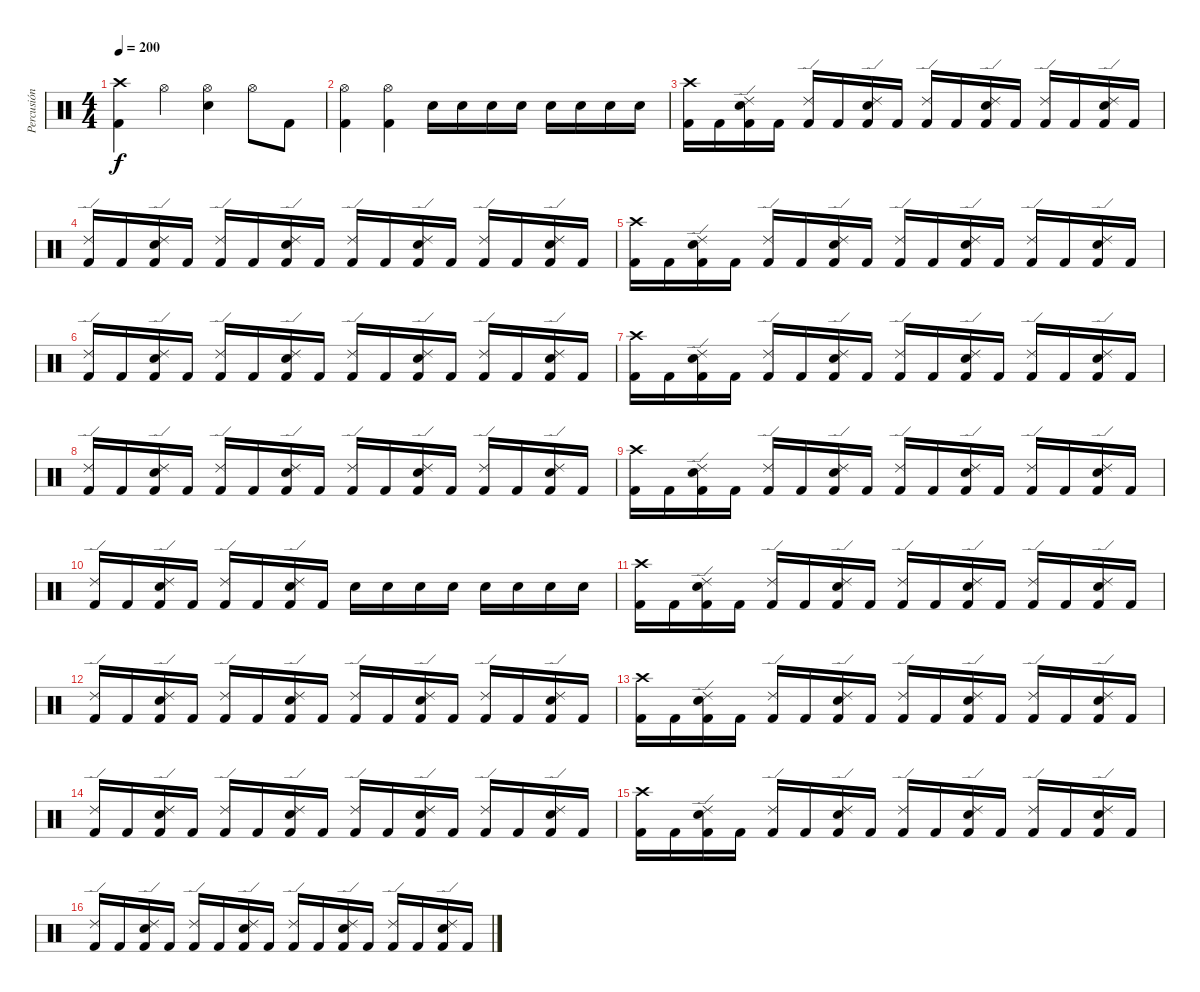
\track ("Percusión" "Percusión") {instrument percussion}
\staff {score}
\articulation defaults
\ts (4 4)
\tempo 200
\clef neutral
\ks c
("Kick (hit) 2" "Crash high (hit)").4{dy f} "Hi-Hat (open)".4 ("Snare (hit) 2" "Hi-Hat (open)").4 "Hi-Hat (open)".8 "Kick (hit) 2".8 |
("Kick (hit) 2" "Hi-Hat (open)").4 ("Kick (hit) 2" "Hi-Hat (open)").4 "Snare (hit) 2".16 "Snare (hit) 2".16 "Snare (hit) 2".16 "Snare (hit) 2".16 "Snare (hit) 2".16 "Snare (hit) 2".16 "Snare (hit) 2".16 "Snare (hit) 2".16 |
("Kick (hit) 2" "Crash high (hit)").16 "Kick (hit) 2".16 ("Kick (hit) 2" "Ride (edge) 2" "Snare (hit) 2").16 "Kick (hit) 2".16 ("Kick (hit) 2" "Ride (edge) 2").16 "Kick (hit) 2".16 ("Kick (hit) 2" "Ride (edge) 2" "Snare (hit) 2").16 "Kick (hit) 2".16 ("Kick (hit) 2" "Ride (edge) 2").16 "Kick (hit) 2".16 ("Kick (hit) 2" "Ride (edge) 2" "Snare (hit) 2").16 "Kick (hit) 2".16 ("Kick (hit) 2" "Ride (edge) 2").16 "Kick (hit) 2".16 ("Kick (hit) 2" "Ride (edge) 2" "Snare (hit) 2").16 "Kick (hit) 2".16 |
("Kick (hit) 2" "Ride (edge) 2").16 "Kick (hit) 2".16 ("Kick (hit) 2" "Ride (edge) 2" "Snare (hit) 2").16 "Kick (hit) 2".16 ("Kick (hit) 2" "Ride (edge) 2").16 "Kick (hit) 2".16 ("Kick (hit) 2" "Ride (edge) 2" "Snare (hit) 2").16 "Kick (hit) 2".16 ("Kick (hit) 2" "Ride (edge) 2").16 "Kick (hit) 2".16 ("Kick (hit) 2" "Ride (edge) 2" "Snare (hit) 2").16 "Kick (hit) 2".16 ("Kick (hit) 2" "Ride (edge) 2").16 "Kick (hit) 2".16 ("Kick (hit) 2" "Ride (edge) 2" "Snare (hit) 2").16 "Kick (hit) 2".16 |
("Kick (hit) 2" "Crash high (hit)").16 "Kick (hit) 2".16 ("Kick (hit) 2" "Ride (edge) 2" "Snare (hit) 2").16 "Kick (hit) 2".16 ("Kick (hit) 2" "Ride (edge) 2").16 "Kick (hit) 2".16 ("Kick (hit) 2" "Ride (edge) 2" "Snare (hit) 2").16 "Kick (hit) 2".16 ("Kick (hit) 2" "Ride (edge) 2").16 "Kick (hit) 2".16 ("Kick (hit) 2" "Ride (edge) 2" "Snare (hit) 2").16 "Kick (hit) 2".16 ("Kick (hit) 2" "Ride (edge) 2").16 "Kick (hit) 2".16 ("Kick (hit) 2" "Ride (edge) 2" "Snare (hit) 2").16 "Kick (hit) 2".16 |
("Kick (hit) 2" "Ride (edge) 2").16 "Kick (hit) 2".16 ("Kick (hit) 2" "Ride (edge) 2" "Snare (hit) 2").16 "Kick (hit) 2".16 ("Kick (hit) 2" "Ride (edge) 2").16 "Kick (hit) 2".16 ("Kick (hit) 2" "Ride (edge) 2" "Snare (hit) 2").16 "Kick (hit) 2".16 ("Kick (hit) 2" "Ride (edge) 2").16 "Kick (hit) 2".16 ("Kick (hit) 2" "Ride (edge) 2" "Snare (hit) 2").16 "Kick (hit) 2".16 ("Kick (hit) 2" "Ride (edge) 2").16 "Kick (hit) 2".16 ("Kick (hit) 2" "Ride (edge) 2" "Snare (hit) 2").16 "Kick (hit) 2".16 |
("Kick (hit) 2" "Crash high (hit)").16 "Kick (hit) 2".16 ("Kick (hit) 2" "Ride (edge) 2" "Snare (hit) 2").16 "Kick (hit) 2".16 ("Kick (hit) 2" "Ride (edge) 2").16 "Kick (hit) 2".16 ("Kick (hit) 2" "Ride (edge) 2" "Snare (hit) 2").16 "Kick (hit) 2".16 ("Kick (hit) 2" "Ride (edge) 2").16 "Kick (hit) 2".16 ("Kick (hit) 2" "Ride (edge) 2" "Snare (hit) 2").16 "Kick (hit) 2".16 ("Kick (hit) 2" "Ride (edge) 2").16 "Kick (hit) 2".16 ("Kick (hit) 2" "Ride (edge) 2" "Snare (hit) 2").16 "Kick (hit) 2".16 |
("Kick (hit) 2" "Ride (edge) 2").16 "Kick (hit) 2".16 ("Kick (hit) 2" "Ride (edge) 2" "Snare (hit) 2").16 "Kick (hit) 2".16 ("Kick (hit) 2" "Ride (edge) 2").16 "Kick (hit) 2".16 ("Kick (hit) 2" "Ride (edge) 2" "Snare (hit) 2").16 "Kick (hit) 2".16 ("Kick (hit) 2" "Ride (edge) 2").16 "Kick (hit) 2".16 ("Kick (hit) 2" "Ride (edge) 2" "Snare (hit) 2").16 "Kick (hit) 2".16 ("Kick (hit) 2" "Ride (edge) 2").16 "Kick (hit) 2".16 ("Kick (hit) 2" "Ride (edge) 2" "Snare (hit) 2").16 "Kick (hit) 2".16 |
("Kick (hit) 2" "Crash high (hit)").16 "Kick (hit) 2".16 ("Kick (hit) 2" "Ride (edge) 2" "Snare (hit) 2").16 "Kick (hit) 2".16 ("Kick (hit) 2" "Ride (edge) 2").16 "Kick (hit) 2".16 ("Kick (hit) 2" "Ride (edge) 2" "Snare (hit) 2").16 "Kick (hit) 2".16 ("Kick (hit) 2" "Ride (edge) 2").16 "Kick (hit) 2".16 ("Kick (hit) 2" "Ride (edge) 2" "Snare (hit) 2").16 "Kick (hit) 2".16 ("Kick (hit) 2" "Ride (edge) 2").16 "Kick (hit) 2".16 ("Kick (hit) 2" "Ride (edge) 2" "Snare (hit) 2").16 "Kick (hit) 2".16 |
("Kick (hit) 2" "Ride (edge) 2").16 "Kick (hit) 2".16 ("Kick (hit) 2" "Ride (edge) 2" "Snare (hit) 2").16 "Kick (hit) 2".16 ("Kick (hit) 2" "Ride (edge) 2").16 "Kick (hit) 2".16 ("Kick (hit) 2" "Ride (edge) 2" "Snare (hit) 2").16 "Kick (hit) 2".16 "Snare (hit) 2".16 "Snare (hit) 2".16 "Snare (hit) 2".16 "Snare (hit) 2".16 "Snare (hit) 2".16 "Snare (hit) 2".16 "Snare (hit) 2".16 "Snare (hit) 2".16 |
("Kick (hit) 2" "Crash high (hit)").16 "Kick (hit) 2".16 ("Kick (hit) 2" "Ride (edge) 2" "Snare (hit) 2").16 "Kick (hit) 2".16 ("Kick (hit) 2" "Ride (edge) 2").16 "Kick (hit) 2".16 ("Kick (hit) 2" "Ride (edge) 2" "Snare (hit) 2").16 "Kick (hit) 2".16 ("Kick (hit) 2" "Ride (edge) 2").16 "Kick (hit) 2".16 ("Kick (hit) 2" "Ride (edge) 2" "Snare (hit) 2").16 "Kick (hit) 2".16 ("Kick (hit) 2" "Ride (edge) 2").16 "Kick (hit) 2".16 ("Kick (hit) 2" "Ride (edge) 2" "Snare (hit) 2").16 "Kick (hit) 2".16 |
("Kick (hit) 2" "Ride (edge) 2").16 "Kick (hit) 2".16 ("Kick (hit) 2" "Ride (edge) 2" "Snare (hit) 2").16 "Kick (hit) 2".16 ("Kick (hit) 2" "Ride (edge) 2").16 "Kick (hit) 2".16 ("Kick (hit) 2" "Ride (edge) 2" "Snare (hit) 2").16 "Kick (hit) 2".16 ("Kick (hit) 2" "Ride (edge) 2").16 "Kick (hit) 2".16 ("Kick (hit) 2" "Ride (edge) 2" "Snare (hit) 2").16 "Kick (hit) 2".16 ("Kick (hit) 2" "Ride (edge) 2").16 "Kick (hit) 2".16 ("Kick (hit) 2" "Ride (edge) 2" "Snare (hit) 2").16 "Kick (hit) 2".16 |
("Kick (hit) 2" "Crash high (hit)").16 "Kick (hit) 2".16 ("Kick (hit) 2" "Ride (edge) 2" "Snare (hit) 2").16 "Kick (hit) 2".16 ("Kick (hit) 2" "Ride (edge) 2").16 "Kick (hit) 2".16 ("Kick (hit) 2" "Ride (edge) 2" "Snare (hit) 2").16 "Kick (hit) 2".16 ("Kick (hit) 2" "Ride (edge) 2").16 "Kick (hit) 2".16 ("Kick (hit) 2" "Ride (edge) 2" "Snare (hit) 2").16 "Kick (hit) 2".16 ("Kick (hit) 2" "Ride (edge) 2").16 "Kick (hit) 2".16 ("Kick (hit) 2" "Ride (edge) 2" "Snare (hit) 2").16 "Kick (hit) 2".16 |
("Kick (hit) 2" "Ride (edge) 2").16 "Kick (hit) 2".16 ("Kick (hit) 2" "Ride (edge) 2" "Snare (hit) 2").16 "Kick (hit) 2".16 ("Kick (hit) 2" "Ride (edge) 2").16 "Kick (hit) 2".16 ("Kick (hit) 2" "Ride (edge) 2" "Snare (hit) 2").16 "Kick (hit) 2".16 ("Kick (hit) 2" "Ride (edge) 2").16 "Kick (hit) 2".16 ("Kick (hit) 2" "Ride (edge) 2" "Snare (hit) 2").16 "Kick (hit) 2".16 ("Kick (hit) 2" "Ride (edge) 2").16 "Kick (hit) 2".16 ("Kick (hit) 2" "Ride (edge) 2" "Snare (hit) 2").16 "Kick (hit) 2".16 |
("Kick (hit) 2" "Crash high (hit)").16 "Kick (hit) 2".16 ("Kick (hit) 2" "Ride (edge) 2" "Snare (hit) 2").16 "Kick (hit) 2".16 ("Kick (hit) 2" "Ride (edge) 2").16 "Kick (hit) 2".16 ("Kick (hit) 2" "Ride (edge) 2" "Snare (hit) 2").16 "Kick (hit) 2".16 ("Kick (hit) 2" "Ride (edge) 2").16 "Kick (hit) 2".16 ("Kick (hit) 2" "Ride (edge) 2" "Snare (hit) 2").16 "Kick (hit) 2".16 ("Kick (hit) 2" "Ride (edge) 2").16 "Kick (hit) 2".16 ("Kick (hit) 2" "Ride (edge) 2" "Snare (hit) 2").16 "Kick (hit) 2".16 |
("Kick (hit) 2" "Ride (edge) 2").16 "Kick (hit) 2".16 ("Kick (hit) 2" "Ride (edge) 2" "Snare (hit) 2").16 "Kick (hit) 2".16 ("Kick (hit) 2" "Ride (edge) 2").16 "Kick (hit) 2".16 ("Kick (hit) 2" "Ride (edge) 2" "Snare (hit) 2").16 "Kick (hit) 2".16 ("Kick (hit) 2" "Ride (edge) 2").16 "Kick (hit) 2".16 ("Kick (hit) 2" "Ride (edge) 2" "Snare (hit) 2").16 "Kick (hit) 2".16 ("Kick (hit) 2" "Ride (edge) 2").16 "Kick (hit) 2".16 ("Kick (hit) 2" "Ride (edge) 2" "Snare (hit) 2").16 "Kick (hit) 2".16
